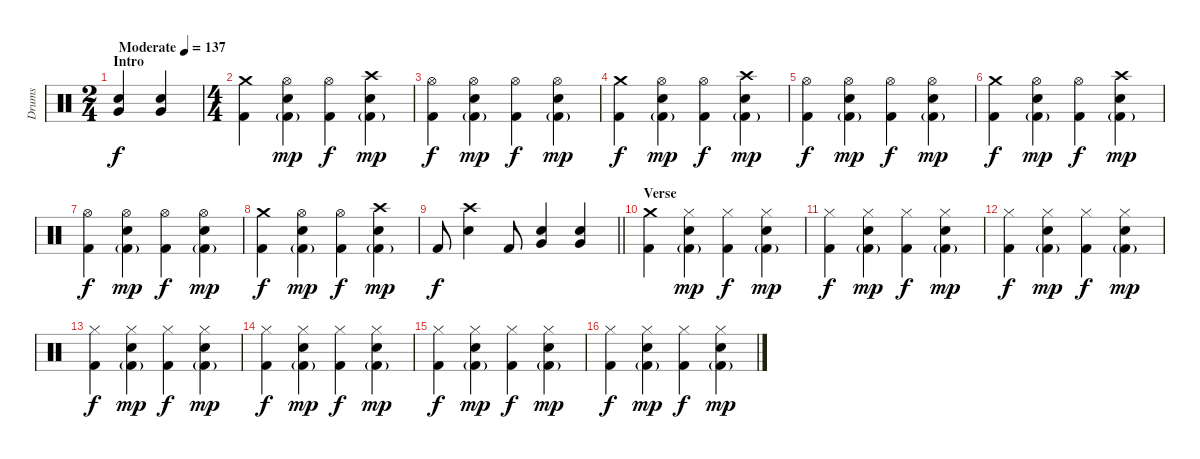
\track ("Drums" "Drums") {instrument percussion}
\staff {score}
\articulation defaults
\ts (2 4)
\section ("" "Intro")
\tempo (137 "Moderate")
\clef neutral
\ks c
("Very Low Tom (hit)" "Electric Snare (hit)").4{dy f} ("Very Low Tom (hit)" "Electric Snare (hit)").4 |
\ts (4 4)
("Crash medium (hit)" "Kick (hit) 2").4 ("Hi-Hat (open)" "Electric Snare (hit)" "Kick (hit) 2"{g}).4{dy mp} ("Hi-Hat (open)" "Kick (hit) 2").4{dy f} ("Crash high (hit)" "Electric Snare (hit)" "Kick (hit) 2"{g}).4{dy mp} |
("Hi-Hat (open)" "Kick (hit) 2").4{dy f} ("Hi-Hat (open)" "Electric Snare (hit)" "Kick (hit) 2"{g}).4{dy mp} ("Hi-Hat (open)" "Kick (hit) 2").4{dy f} ("Hi-Hat (open)" "Electric Snare (hit)" "Kick (hit) 2"{g}).4{dy mp} |
("Crash medium (hit)" "Kick (hit) 2").4{dy f} ("Hi-Hat (open)" "Electric Snare (hit)" "Kick (hit) 2"{g}).4{dy mp} ("Hi-Hat (open)" "Kick (hit) 2").4{dy f} ("Crash high (hit)" "Electric Snare (hit)" "Kick (hit) 2"{g}).4{dy mp} |
("Hi-Hat (open)" "Kick (hit) 2").4{dy f} ("Hi-Hat (open)" "Electric Snare (hit)" "Kick (hit) 2"{g}).4{dy mp} ("Hi-Hat (open)" "Kick (hit) 2").4{dy f} ("Hi-Hat (open)" "Electric Snare (hit)" "Kick (hit) 2"{g}).4{dy mp} |
("Crash medium (hit)" "Kick (hit) 2").4{dy f} ("Hi-Hat (open)" "Electric Snare (hit)" "Kick (hit) 2"{g}).4{dy mp} ("Hi-Hat (open)" "Kick (hit) 2").4{dy f} ("Crash high (hit)" "Electric Snare (hit)" "Kick (hit) 2"{g}).4{dy mp} |
("Hi-Hat (open)" "Kick (hit) 2").4{dy f} ("Hi-Hat (open)" "Electric Snare (hit)" "Kick (hit) 2"{g}).4{dy mp} ("Hi-Hat (open)" "Kick (hit) 2").4{dy f} ("Hi-Hat (open)" "Electric Snare (hit)" "Kick (hit) 2"{g}).4{dy mp} |
("Crash medium (hit)" "Kick (hit) 2").4{dy f} ("Hi-Hat (open)" "Electric Snare (hit)" "Kick (hit) 2"{g}).4{dy mp} ("Hi-Hat (open)" "Kick (hit) 2").4{dy f} ("Crash high (hit)" "Electric Snare (hit)" "Kick (hit) 2"{g}).4{dy mp} |
\barLineRight lightlight "Kick (hit) 2".8{dy f}
("Crash high (hit)" "Electric Snare (hit)").4 "Kick (hit) 2".8 ("Very Low Tom (hit)" "Electric Snare (hit)").4 ("Very Low Tom (hit)" "Electric Snare (hit)").4 |
\section ("" "Verse")
("Crash medium (hit)" "Kick (hit) 2").4 ("Hi-Hat (closed)" "Electric Snare (hit)" "Kick (hit) 2"{g}).4{dy mp} ("Hi-Hat (closed)" "Kick (hit) 2").4{dy f} ("Hi-Hat (closed)" "Electric Snare (hit)" "Kick (hit) 2"{g}).4{dy mp} |
("Hi-Hat (closed)" "Kick (hit) 2").4{dy f} ("Hi-Hat (closed)" "Electric Snare (hit)" "Kick (hit) 2"{g}).4{dy mp} ("Hi-Hat (closed)" "Kick (hit) 2").4{dy f} ("Hi-Hat (closed)" "Electric Snare (hit)" "Kick (hit) 2"{g}).4{dy mp} |
("Hi-Hat (closed)" "Kick (hit) 2").4{dy f} ("Hi-Hat (closed)" "Electric Snare (hit)" "Kick (hit) 2"{g}).4{dy mp} ("Hi-Hat (closed)" "Kick (hit) 2").4{dy f} ("Hi-Hat (closed)" "Electric Snare (hit)" "Kick (hit) 2"{g}).4{dy mp} |
("Hi-Hat (closed)" "Kick (hit) 2").4{dy f} ("Hi-Hat (closed)" "Electric Snare (hit)" "Kick (hit) 2"{g}).4{dy mp} ("Hi-Hat (closed)" "Kick (hit) 2").4{dy f} ("Hi-Hat (closed)" "Electric Snare (hit)" "Kick (hit) 2"{g}).4{dy mp} |
("Hi-Hat (closed)" "Kick (hit) 2").4{dy f} ("Hi-Hat (closed)" "Electric Snare (hit)" "Kick (hit) 2"{g}).4{dy mp} ("Hi-Hat (closed)" "Kick (hit) 2").4{dy f} ("Hi-Hat (closed)" "Electric Snare (hit)" "Kick (hit) 2"{g}).4{dy mp} |
("Hi-Hat (closed)" "Kick (hit) 2").4{dy f} ("Hi-Hat (closed)" "Electric Snare (hit)" "Kick (hit) 2"{g}).4{dy mp} ("Hi-Hat (closed)" "Kick (hit) 2").4{dy f} ("Hi-Hat (closed)" "Electric Snare (hit)" "Kick (hit) 2"{g}).4{dy mp} |
("Hi-Hat (closed)" "Kick (hit) 2").4{dy f} ("Hi-Hat (closed)" "Electric Snare (hit)" "Kick (hit) 2"{g}).4{dy mp} ("Hi-Hat (closed)" "Kick (hit) 2").4{dy f} ("Hi-Hat (closed)" "Electric Snare (hit)" "Kick (hit) 2"{g}).4{dy mp}
